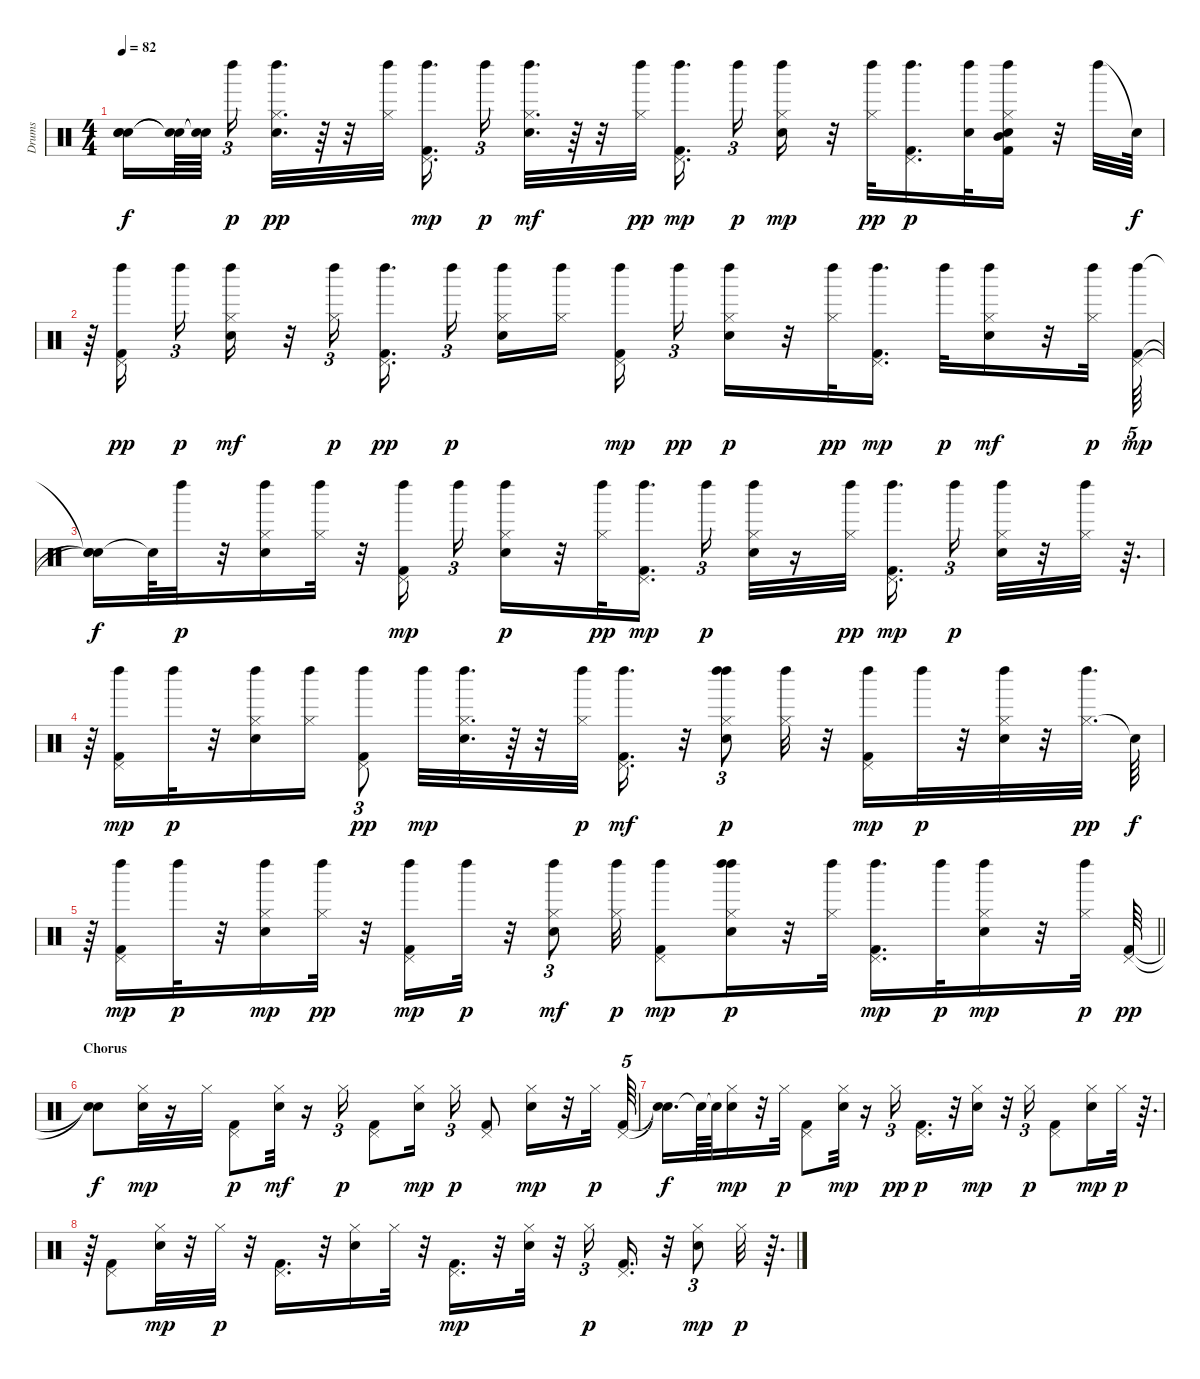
\track ("Drums" "Drums") {instrument percussion}
\staff {score}
\articulation defaults
\ts (4 4)
\tempo 82
\clef neutral
\ks c
("Snare (hit)"{t} "Snare (hit)"{t} "Snare (hit)"{t}).16{dy f} ("Snare (hit)"{t} "Snare (hit)"{t}).64 ("Snare (hit)"{t} "Snare (hit)"{t}).64{beam splitsecondary} "Left Maraca (hit)".16{tu (3 2) dy p} ("Hi-Hat (closed)" "Hand Clap (hit)" "Left Maraca (hit)").32{d dy pp} r.64 r.32 ("Left Maraca (hit)" "Hi-Hat (closed)").32 ("Pedal Hi-Hat (hit)" "Left Maraca (hit)" "Kick (hit) 2").16{d dy mp beam splitsecondary} "Left Maraca (hit)".16{tu (3 2) dy p} ("Hi-Hat (closed)" "Left Maraca (hit)" "Hand Clap (hit)").32{d dy mf} r.64 r.32 ("Left Maraca (hit)" "Hi-Hat (closed)").32{dy pp} ("Pedal Hi-Hat (hit)" "Kick (hit) 2" "Left Maraca (hit)").16{d dy mp beam splitsecondary} "Left Maraca (hit)".16{tu (3 2) dy p} ("Hi-Hat (closed)" "Left Maraca (hit)" "Hand Clap (hit)").16{dy mp} r.32 ("Left Maraca (hit)" "Hi-Hat (closed)").32{dy pp} ("Left Maraca (hit)" "Kick (hit) 2" "Pedal Hi-Hat (hit)").16{d dy p} ("Left Maraca (hit)" "Hand Clap (hit)").32 ("Hi-Hat (closed)" "Kick (hit) 2" "Mid Tom (hit)" "Hand Clap (hit)" "Left Maraca (hit)").16 r.32 "Left Maraca (hit)".32 "Snare (hit)"{t}.64{dy f} |
r.64 ("Left Maraca (hit)" "Kick (hit) 2" "Pedal Hi-Hat (hit)").16{dy pp beam splitsecondary} "Left Maraca (hit)".16{tu (3 2) dy p} ("Hi-Hat (closed)" "Left Maraca (hit)" "Hand Clap (hit)").16{dy mf} r.32 ("Hi-Hat (closed)" "Left Maraca (hit)").16{tu (3 2) dy p} ("Left Maraca (hit)" "Kick (hit) 2" "Pedal Hi-Hat (hit)").16{d dy pp beam splitsecondary} "Left Maraca (hit)".16{tu (3 2) dy p beam splitsecondary} ("Hi-Hat (closed)" "Hand Clap (hit)" "Left Maraca (hit)").16 ("Left Maraca (hit)" "Hi-Hat (closed)").16 ("Pedal Hi-Hat (hit)" "Left Maraca (hit)" "Kick (hit) 2").16{dy mp beam splitsecondary} "Left Maraca (hit)".16{tu (3 2) dy pp} ("Hi-Hat (closed)" "Left Maraca (hit)" "Hand Clap (hit)").16{dy p} r.32 ("Left Maraca (hit)" "Hi-Hat (closed)").32{dy pp} ("Pedal Hi-Hat (hit)" "Left Maraca (hit)" "Kick (hit) 2").16{d dy mp} "Left Maraca (hit)".32{dy p} ("Hi-Hat (closed)" "Left Maraca (hit)" "Hand Clap (hit)").16{dy mf} r.32 ("Left Maraca (hit)" "Hi-Hat (closed)").32{dy p} ("Pedal Hi-Hat (hit)" "Left Maraca (hit)" "Kick (hit) 2").64{tu (5 4) dy mp} |
("Snare (hit)"{t} "Snare (hit)"{t} "Snare (hit)"{t}).16{dy f} "Snare (hit)"{t}.64 "Left Maraca (hit)".32{dy p} r.32 ("Hi-Hat (closed)" "Hand Clap (hit)" "Left Maraca (hit)").16 ("Left Maraca (hit)" "Hi-Hat (closed)").32 r.32 ("Pedal Hi-Hat (hit)" "Left Maraca (hit)" "Kick (hit) 2").16{dy mp beam splitsecondary} "Left Maraca (hit)".16{tu (3 2)} ("Hi-Hat (closed)" "Hand Clap (hit)" "Left Maraca (hit)").16{dy p} r.32 ("Left Maraca (hit)" "Hi-Hat (closed)").32{dy pp} ("Pedal Hi-Hat (hit)" "Left Maraca (hit)" "Kick (hit) 2").16{d dy mp} "Left Maraca (hit)".16{tu (3 2) dy p} ("Hi-Hat (closed)" "Hand Clap (hit)" "Left Maraca (hit)").32 r.16 ("Left Maraca (hit)" "Hi-Hat (closed)").32{dy pp} ("Pedal Hi-Hat (hit)" "Kick (hit) 2" "Left Maraca (hit)").16{d dy mp beam splitsecondary} "Left Maraca (hit)".16{tu (3 2) dy p} ("Hi-Hat (closed)" "Left Maraca (hit)" "Hand Clap (hit)").32 r.32 ("Hi-Hat (closed)" "Left Maraca (hit)").32 r.64{d} |
r.64 ("Pedal Hi-Hat (hit)" "Left Maraca (hit)" "Kick (hit) 2").16{dy mp} "Left Maraca (hit)".32{dy p} r.32 ("Hi-Hat (closed)" "Hand Clap (hit)" "Left Maraca (hit)").16 ("Hi-Hat (closed)" "Left Maraca (hit)").16 ("Left Maraca (hit)" "Kick (hit) 2" "Pedal Hi-Hat (hit)").8{tu (3 2) dy pp} "Left Maraca (hit)".32{dy mp} ("Hi-Hat (closed)" "Hand Clap (hit)" "Left Maraca (hit)").32{d} r.64 r.32 ("Hi-Hat (closed)" "Left Maraca (hit)").32{dy p} ("Pedal Hi-Hat (hit)" "Left Maraca (hit)" "Kick (hit) 2").16{d dy mf} r.32 ("Hi-Hat (closed)" "Left Maraca (hit)" "Left Maraca (hit)" "Hand Clap (hit)").8{tu (3 2) dy p} ("Hi-Hat (closed)" "Left Maraca (hit)").32 r.32 ("Pedal Hi-Hat (hit)" "Left Maraca (hit)" "Kick (hit) 2").16{dy mp} "Left Maraca (hit)".32{dy p} r.32 ("Hi-Hat (closed)" "Left Maraca (hit)" "Hand Clap (hit)").32 r.32 ("Hi-Hat (closed)" "Left Maraca (hit)").32{d dy pp} "Snare (hit)"{t}.64{dy f} |
\barLineRight lightlight
r.64 ("Pedal Hi-Hat (hit)" "Left Maraca (hit)" "Kick (hit) 2").16{dy mp} "Left Maraca (hit)".32{dy p} r.32 ("Hi-Hat (closed)" "Left Maraca (hit)" "Hand Clap (hit)").16{dy mp} ("Hi-Hat (closed)" "Left Maraca (hit)").32{dy pp} r.32 ("Pedal Hi-Hat (hit)" "Left Maraca (hit)" "Kick (hit) 2").16{dy mp} "Left Maraca (hit)".32{dy p} r.32 ("Hi-Hat (closed)" "Left Maraca (hit)" "Hand Clap (hit)").8{tu (3 2) dy mf} ("Hi-Hat (closed)" "Left Maraca (hit)").32{dy p} ("Pedal Hi-Hat (hit)" "Left Maraca (hit)" "Kick (hit) 2").8{dy mp} ("Hi-Hat (closed)" "Left Maraca (hit)" "Left Maraca (hit)" "Hand Clap (hit)").16{dy p} r.32 ("Hi-Hat (closed)" "Left Maraca (hit)").32 ("Pedal Hi-Hat (hit)" "Left Maraca (hit)" "Kick (hit) 2").16{d dy mp} "Left Maraca (hit)".32{dy p} ("Hi-Hat (closed)" "Left Maraca (hit)" "Hand Clap (hit)").16{dy mp} r.32 ("Left Maraca (hit)" "Hi-Hat (closed)").32{dy p} ("Pedal Hi-Hat (hit)" "Kick (hit) 2").64{dy pp} |
\section ("" "Chorus")
("Snare (hit)"{t} "Snare (hit)"{t}).8{dy f} ("Hi-Hat (closed)" "Hand Clap (hit)").32{dy mp} r.16 "Hi-Hat (closed)".32 ("Pedal Hi-Hat (hit)" "Kick (hit) 2").8{dy p} ("Hi-Hat (closed)" "Hand Clap (hit)").32{dy mf} r.16 "Hi-Hat (closed)".16{tu (3 2) dy p} ("Pedal Hi-Hat (hit)" "Kick (hit) 2").8 ("Hi-Hat (closed)" "Hand Clap (hit)").16{dy mp beam splitsecondary} "Hi-Hat (closed)".16{tu (3 2) dy p} ("Pedal Hi-Hat (hit)" "Kick (hit) 2").8 ("Hi-Hat (closed)" "Hand Clap (hit)").16{dy mp} r.32 "Hi-Hat (closed)".32{dy p} ("Pedal Hi-Hat (hit)" "Kick (hit) 2").64{tu (5 4)} |
("Snare (hit)"{t} "Snare (hit)"{t}).16{d dy f} "Snare (hit)"{t}.64 "Snare (hit)"{t}.64 ("Hi-Hat (closed)" "Hand Clap (hit)").16{dy mp} r.32 "Hi-Hat (closed)".32{dy p} ("Pedal Hi-Hat (hit)" "Kick (hit) 2").8 ("Hi-Hat (closed)" "Hand Clap (hit)").32{dy mp} r.16 "Hi-Hat (closed)".16{tu (3 2) dy pp} ("Pedal Hi-Hat (hit)" "Kick (hit) 2").16{d dy p} r.32 ("Hi-Hat (closed)" "Hand Clap (hit)").16{dy mp} r.32 "Hi-Hat (closed)".16{tu (3 2) dy p} ("Pedal Hi-Hat (hit)" "Kick (hit) 2").8 ("Hi-Hat (closed)" "Hand Clap (hit)").16{dy mp} "Hi-Hat (closed)".32{dy p} r.64{d} |
r.64 ("Pedal Hi-Hat (hit)" "Kick (hit) 2").8 ("Hi-Hat (closed)" "Hand Clap (hit)").32{dy mp} r.32 "Hi-Hat (closed)".32{dy p} r.32 ("Pedal Hi-Hat (hit)" "Kick (hit) 2").16{d} r.32 ("Hi-Hat (closed)" "Hand Clap (hit)").16 "Hi-Hat (closed)".32 r.32 ("Pedal Hi-Hat (hit)" "Kick (hit) 2").16{d dy mp} r.32 ("Hi-Hat (closed)" "Hand Clap (hit)").32 r.32 "Hi-Hat (closed)".16{tu (3 2) dy p} ("Pedal Hi-Hat (hit)" "Kick (hit) 2").16{d} r.32 ("Hi-Hat (closed)" "Hand Clap (hit)").8{tu (3 2) dy mp} "Hi-Hat (closed)".32{dy p} r.64{d}
